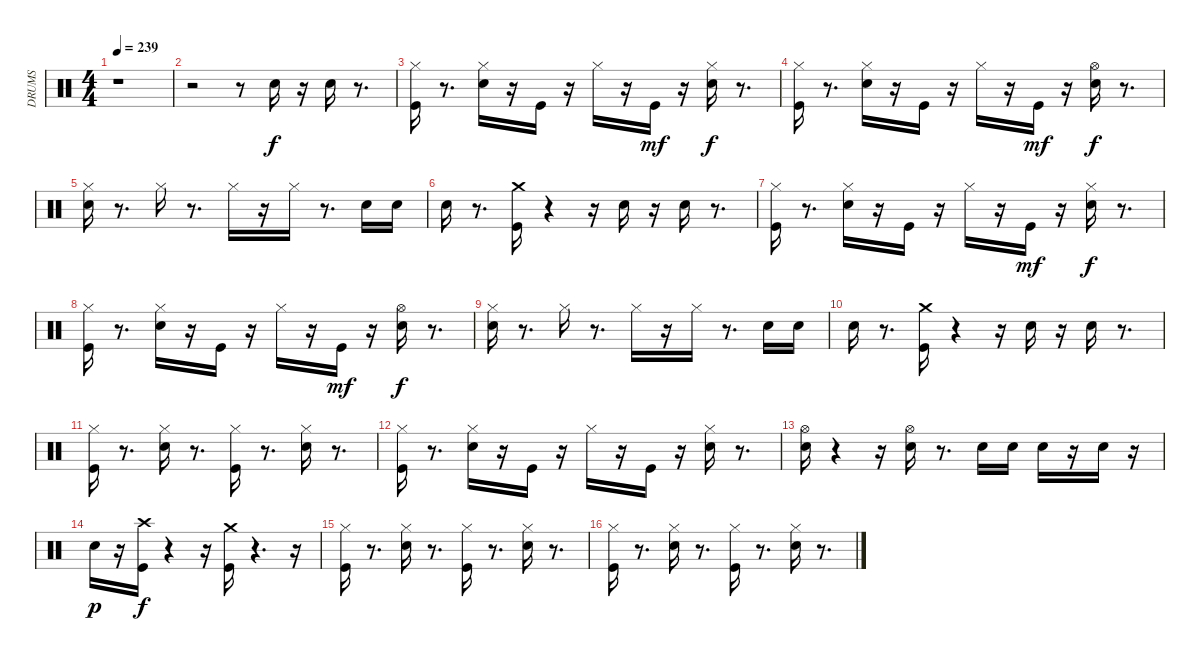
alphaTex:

\track ("DRUMS" "DRUMS") {instrument percussion}
\staff {score}
\articulation defaults
\ts (4 4)
\tempo 239
\clef neutral
\ks c
r.1{dy f} |
r.2 r.8 "Electric Snare (hit)".16 r.16 "Electric Snare (hit)".16 r.8{d} |
("Hi-Hat (closed)" "Kick (hit)").16 r.8{d} ("Electric Snare (hit)" "Hi-Hat (closed)").16 r.16 "Kick (hit)".16 r.16 "Hi-Hat (closed)".16 r.16 "Kick (hit)".16{dy mf} r.16 ("Electric Snare (hit)" "Hi-Hat (closed)").16{dy f} r.8{d} |
("Hi-Hat (closed)" "Kick (hit)").16 r.8{d} ("Electric Snare (hit)" "Hi-Hat (closed)").16 r.16 "Kick (hit)".16 r.16 "Hi-Hat (closed)".16 r.16 "Kick (hit)".16{dy mf} r.16 ("Electric Snare (hit)" "Hi-Hat (open)").16{dy f} r.8{d} |
("Electric Snare (hit)" "Hi-Hat (closed)").16 r.8{d} "Hi-Hat (closed)".16 r.8{d} "Hi-Hat (closed)".16 r.16 "Hi-Hat (closed)".16 r.8{d} "Electric Snare (hit)".16 "Electric Snare (hit)".16 |
"Electric Snare (hit)".16 r.8{d} ("Crash medium (hit)" "Kick (hit)").16 r.4 r.16 "Electric Snare (hit)".16 r.16 "Electric Snare (hit)".16 r.8{d} |
("Hi-Hat (closed)" "Kick (hit)").16 r.8{d} ("Electric Snare (hit)" "Hi-Hat (closed)").16 r.16 "Kick (hit)".16 r.16 "Hi-Hat (closed)".16 r.16 "Kick (hit)".16{dy mf} r.16 ("Electric Snare (hit)" "Hi-Hat (closed)").16{dy f} r.8{d} |
("Hi-Hat (closed)" "Kick (hit)").16 r.8{d} ("Electric Snare (hit)" "Hi-Hat (closed)").16 r.16 "Kick (hit)".16 r.16 "Hi-Hat (closed)".16 r.16 "Kick (hit)".16{dy mf} r.16 ("Electric Snare (hit)" "Hi-Hat (open)").16{dy f} r.8{d} |
("Electric Snare (hit)" "Hi-Hat (closed)").16 r.8{d} "Hi-Hat (closed)".16 r.8{d} "Hi-Hat (closed)".16 r.16 "Hi-Hat (closed)".16 r.8{d} "Electric Snare (hit)".16 "Electric Snare (hit)".16 |
"Electric Snare (hit)".16 r.8{d} ("Crash medium (hit)" "Kick (hit)").16 r.4 r.16 "Electric Snare (hit)".16 r.16 "Electric Snare (hit)".16 r.8{d} |
("Kick (hit)" "Hi-Hat (closed)").16 r.8{d} ("Electric Snare (hit)" "Hi-Hat (closed)").16 r.8{d} ("Kick (hit)" "Hi-Hat (closed)").16 r.8{d} ("Electric Snare (hit)" "Hi-Hat (closed)").16 r.8{d} |
("Kick (hit)" "Hi-Hat (closed)").16 r.8{d} ("Electric Snare (hit)" "Hi-Hat (closed)").16 r.16 "Kick (hit)".16 r.16 "Hi-Hat (closed)".16 r.16 "Kick (hit)".16 r.16 ("Electric Snare (hit)" "Hi-Hat (closed)").16 r.8{d} |
("Hi-Hat (open)" "Electric Snare (hit)").16 r.4 r.16 ("Electric Snare (hit)" "Hi-Hat (open)").16 r.8{d} "Electric Snare (hit)".16 "Electric Snare (hit)".16 "Electric Snare (hit)".16 r.16 "Electric Snare (hit)".16 r.16 |
"Electric Snare (hit)".16{dy p} r.16 ("Crash high (hit)" "Kick (hit)").16{dy f} r.4 r.16 ("Crash medium (hit)" "Kick (hit)").16 r.4{d} r.16 |
("Kick (hit)" "Hi-Hat (closed)").16 r.8{d} ("Electric Snare (hit)" "Hi-Hat (closed)").16 r.8{d} ("Kick (hit)" "Hi-Hat (closed)").16 r.8{d} ("Electric Snare (hit)" "Hi-Hat (closed)").16 r.8{d} |
("Kick (hit)" "Hi-Hat (closed)").16 r.8{d} ("Electric Snare (hit)" "Hi-Hat (closed)").16 r.8{d} ("Kick (hit)" "Hi-Hat (closed)").16 r.8{d} ("Electric Snare (hit)" "Hi-Hat (closed)").16 r.8{d}
